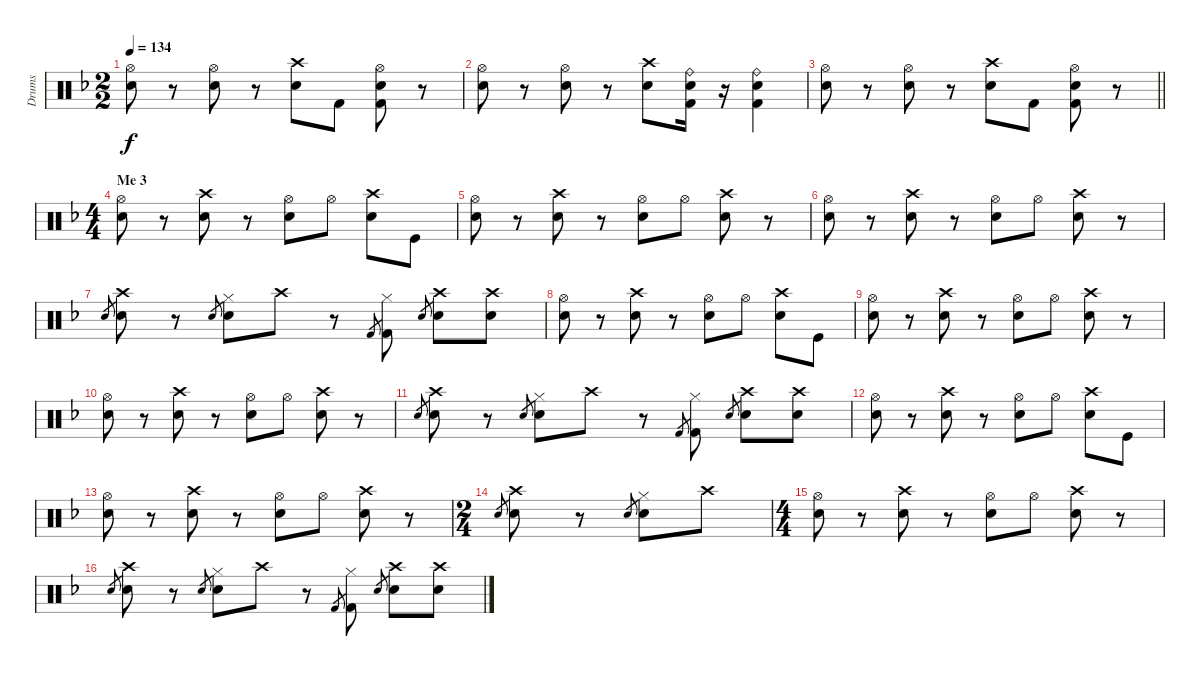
\track ("Drums" "Drums") {instrument percussion}
\staff {score}
\articulation defaults
\ts (2 2)
\tempo 134
\clef neutral
\ks f
("Snare (hit) 2" "Hi-Hat (open)").8{dy f} r.8 ("Snare (hit) 2" "Hi-Hat (open)").8 r.8 ("Electric Snare (hit)" "Crash high (hit)").8 "Kick (hit) 2".8 ("Electric Snare (hit)" "Kick (hit) 2" "Hi-Hat (open)").8 r.8 |
("Snare (hit) 2" "Hi-Hat (open)").8 r.8 ("Snare (hit) 2" "Hi-Hat (open)").8 r.8 ("Electric Snare (hit)" "Crash high (hit)").8 ("Electric Snare (hit)" "Kick (hit) 2" "Ride (bell)").16 r.16 ("Electric Snare (hit)" "Kick (hit) 2" "Ride (bell)").4 |
\barLineRight lightlight
("Snare (hit) 2" "Hi-Hat (open)").8 r.8 ("Snare (hit) 2" "Hi-Hat (open)").8 r.8 ("Electric Snare (hit)" "Crash high (hit)").8 "Kick (hit) 2".8 ("Electric Snare (hit)" "Kick (hit) 2" "Hi-Hat (open)").8 r.8 |
\ts (4 4)
\section ("" "Me 3")
("Snare (hit) 2" "Hi-Hat (open)").8 r.8 ("Electric Snare (hit)" "Crash high (hit)").8 r.8 ("Snare (hit) 2" "Hi-Hat (open)").8 "Hi-Hat (open)".8 ("Electric Snare (hit)" "Crash high (hit)").8 "Kick (hit)".8 |
("Snare (hit) 2" "Hi-Hat (open)").8 r.8 ("Electric Snare (hit)" "Crash high (hit)").8 r.8 ("Snare (hit) 2" "Hi-Hat (open)").8 "Hi-Hat (open)".8 ("Electric Snare (hit)" "Crash high (hit)").8 r.8 |
("Snare (hit) 2" "Hi-Hat (open)").8 r.8 ("Electric Snare (hit)" "Crash high (hit)").8 r.8 ("Snare (hit) 2" "Hi-Hat (open)").8 "Hi-Hat (open)".8 ("Electric Snare (hit)" "Crash high (hit)").8 r.8 |
"Electric Snare (hit)".8{gr} ("Electric Snare (hit)" "Crash high (hit)").8 r.8 "Electric Snare (hit)".8{gr} ("Electric Snare (hit)" "Hi-Hat (closed)").8 "Crash high (hit)".8 r.8 "Kick (hit) 2".8{gr} ("Kick (hit) 2" "Hi-Hat (closed)").8 "Electric Snare (hit)".8{gr} ("Electric Snare (hit)" "Crash high (hit)").8 ("Electric Snare (hit)" "Crash high (hit)").8 |
("Snare (hit) 2" "Hi-Hat (open)").8 r.8 ("Electric Snare (hit)" "Crash high (hit)").8 r.8 ("Snare (hit) 2" "Hi-Hat (open)").8 "Hi-Hat (open)".8 ("Electric Snare (hit)" "Crash high (hit)").8 "Kick (hit)".8 |
("Snare (hit) 2" "Hi-Hat (open)").8 r.8 ("Electric Snare (hit)" "Crash high (hit)").8 r.8 ("Snare (hit) 2" "Hi-Hat (open)").8 "Hi-Hat (open)".8 ("Electric Snare (hit)" "Crash high (hit)").8 r.8 |
("Snare (hit) 2" "Hi-Hat (open)").8 r.8 ("Electric Snare (hit)" "Crash high (hit)").8 r.8 ("Snare (hit) 2" "Hi-Hat (open)").8 "Hi-Hat (open)".8 ("Electric Snare (hit)" "Crash high (hit)").8 r.8 |
"Electric Snare (hit)".8{gr} ("Electric Snare (hit)" "Crash high (hit)").8 r.8 "Electric Snare (hit)".8{gr} ("Electric Snare (hit)" "Hi-Hat (closed)").8 "Crash high (hit)".8 r.8 "Kick (hit) 2".8{gr} ("Kick (hit) 2" "Hi-Hat (closed)").8 "Electric Snare (hit)".8{gr} ("Electric Snare (hit)" "Crash high (hit)").8 ("Electric Snare (hit)" "Crash high (hit)").8 |
("Snare (hit) 2" "Hi-Hat (open)").8 r.8 ("Electric Snare (hit)" "Crash high (hit)").8 r.8 ("Snare (hit) 2" "Hi-Hat (open)").8 "Hi-Hat (open)".8 ("Electric Snare (hit)" "Crash high (hit)").8 "Kick (hit)".8 |
("Snare (hit) 2" "Hi-Hat (open)").8 r.8 ("Electric Snare (hit)" "Crash high (hit)").8 r.8 ("Snare (hit) 2" "Hi-Hat (open)").8 "Hi-Hat (open)".8 ("Electric Snare (hit)" "Crash high (hit)").8 r.8 |
\ts (2 4)
"Electric Snare (hit)".8{gr} ("Electric Snare (hit)" "Crash high (hit)").8 r.8 "Electric Snare (hit)".8{gr} ("Electric Snare (hit)" "Hi-Hat (closed)").8 "Crash high (hit)".8 |
\ts (4 4)
("Snare (hit) 2" "Hi-Hat (open)").8 r.8 ("Electric Snare (hit)" "Crash high (hit)").8 r.8 ("Snare (hit) 2" "Hi-Hat (open)").8 "Hi-Hat (open)".8 ("Electric Snare (hit)" "Crash high (hit)").8 r.8 |
"Electric Snare (hit)".8{gr} ("Electric Snare (hit)" "Crash high (hit)").8 r.8 "Electric Snare (hit)".8{gr} ("Electric Snare (hit)" "Hi-Hat (closed)").8 "Crash high (hit)".8 r.8 "Kick (hit) 2".8{gr} ("Kick (hit) 2" "Hi-Hat (closed)").8 "Electric Snare (hit)".8{gr} ("Electric Snare (hit)" "Crash high (hit)").8 ("Electric Snare (hit)" "Crash high (hit)").8
